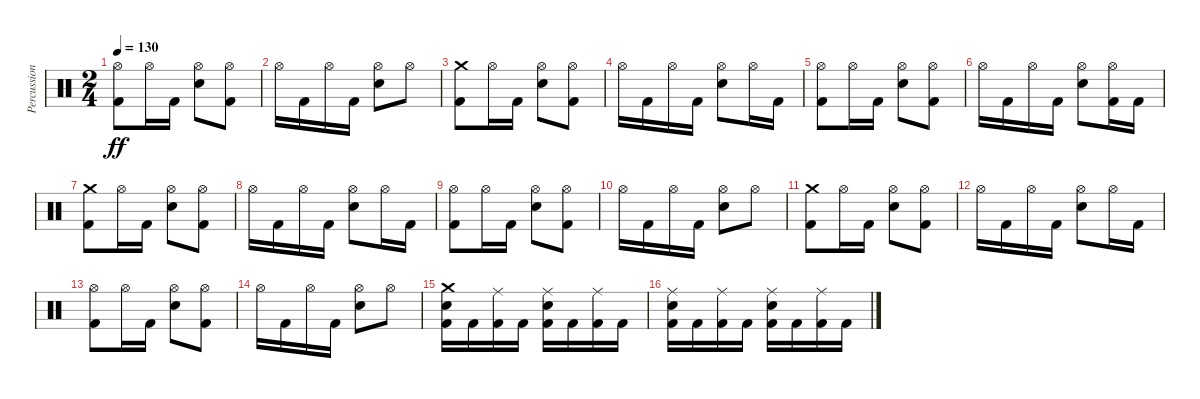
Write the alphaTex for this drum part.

\track ("Percussion" "Percussion") {instrument percussion}
\staff {score}
\articulation defaults
\ts (2 4)
\tempo 130
\clef neutral
\ks c
("Hi-Hat (open)" "Kick (hit) 2").8{dy ff} "Hi-Hat (open)".16 "Kick (hit) 2".16 ("Hi-Hat (open)" "Snare (hit) 2").8 ("Hi-Hat (open)" "Kick (hit) 2").8 |
"Hi-Hat (open)".16 "Kick (hit) 2".16 "Hi-Hat (open)".16 "Kick (hit) 2".16 ("Hi-Hat (open)" "Snare (hit) 2").8 "Hi-Hat (open)".8 |
("Crash medium (hit)" "Kick (hit) 2").8 "Hi-Hat (open)".16 "Kick (hit) 2".16 ("Hi-Hat (open)" "Snare (hit) 2").8 ("Hi-Hat (open)" "Kick (hit) 2").8 |
"Hi-Hat (open)".16 "Kick (hit) 2".16 "Hi-Hat (open)".16 "Kick (hit) 2".16 ("Hi-Hat (open)" "Snare (hit) 2").8 "Hi-Hat (open)".16 "Kick (hit) 2".16 |
("Hi-Hat (open)" "Kick (hit) 2").8 "Hi-Hat (open)".16 "Kick (hit) 2".16 ("Hi-Hat (open)" "Snare (hit) 2").8 ("Hi-Hat (open)" "Kick (hit) 2").8 |
"Hi-Hat (open)".16 "Kick (hit) 2".16 "Hi-Hat (open)".16 "Kick (hit) 2".16 ("Hi-Hat (open)" "Snare (hit) 2").8 ("Hi-Hat (open)" "Kick (hit) 2").16 "Kick (hit) 2".16 |
("Crash medium (hit)" "Kick (hit) 2").8 "Hi-Hat (open)".16 "Kick (hit) 2".16 ("Hi-Hat (open)" "Snare (hit) 2").8 ("Hi-Hat (open)" "Kick (hit) 2").8 |
"Hi-Hat (open)".16 "Kick (hit) 2".16 "Hi-Hat (open)".16 "Kick (hit) 2".16 ("Hi-Hat (open)" "Snare (hit) 2").8 "Hi-Hat (open)".16 "Kick (hit) 2".16 |
("Hi-Hat (open)" "Kick (hit) 2").8 "Hi-Hat (open)".16 "Kick (hit) 2".16 ("Hi-Hat (open)" "Snare (hit) 2").8 ("Hi-Hat (open)" "Kick (hit) 2").8 |
"Hi-Hat (open)".16 "Kick (hit) 2".16 "Hi-Hat (open)".16 "Kick (hit) 2".16 ("Hi-Hat (open)" "Snare (hit) 2").8 "Hi-Hat (open)".8 |
("Crash medium (hit)" "Kick (hit) 2").8 "Hi-Hat (open)".16 "Kick (hit) 2".16 ("Hi-Hat (open)" "Snare (hit) 2").8 ("Hi-Hat (open)" "Kick (hit) 2").8 |
"Hi-Hat (open)".16 "Kick (hit) 2".16 "Hi-Hat (open)".16 "Kick (hit) 2".16 ("Hi-Hat (open)" "Snare (hit) 2").8 "Hi-Hat (open)".16 "Kick (hit) 2".16 |
("Hi-Hat (open)" "Kick (hit) 2").8 "Hi-Hat (open)".16 "Kick (hit) 2".16 ("Hi-Hat (open)" "Snare (hit) 2").8 ("Hi-Hat (open)" "Kick (hit) 2").8 |
"Hi-Hat (open)".16 "Kick (hit) 2".16 "Hi-Hat (open)".16 "Kick (hit) 2".16 ("Hi-Hat (open)" "Snare (hit) 2").8 "Hi-Hat (open)".8 |
("Crash medium (hit)" "Snare (hit) 2" "Kick (hit) 2").16 "Kick (hit) 2".16 ("Ride (middle)" "Kick (hit) 2").16 "Kick (hit) 2".16 ("Ride (middle)" "Snare (hit) 2" "Kick (hit) 2").16 "Kick (hit) 2".16 ("Ride (middle)" "Kick (hit) 2").16 "Kick (hit) 2".16 |
("Ride (middle)" "Snare (hit) 2" "Kick (hit) 2").16 "Kick (hit) 2".16 ("Ride (middle)" "Kick (hit) 2").16 "Kick (hit) 2".16 ("Ride (middle)" "Snare (hit) 2" "Kick (hit) 2").16 "Kick (hit) 2".16 ("Ride (middle)" "Kick (hit) 2").16 "Kick (hit) 2".16
